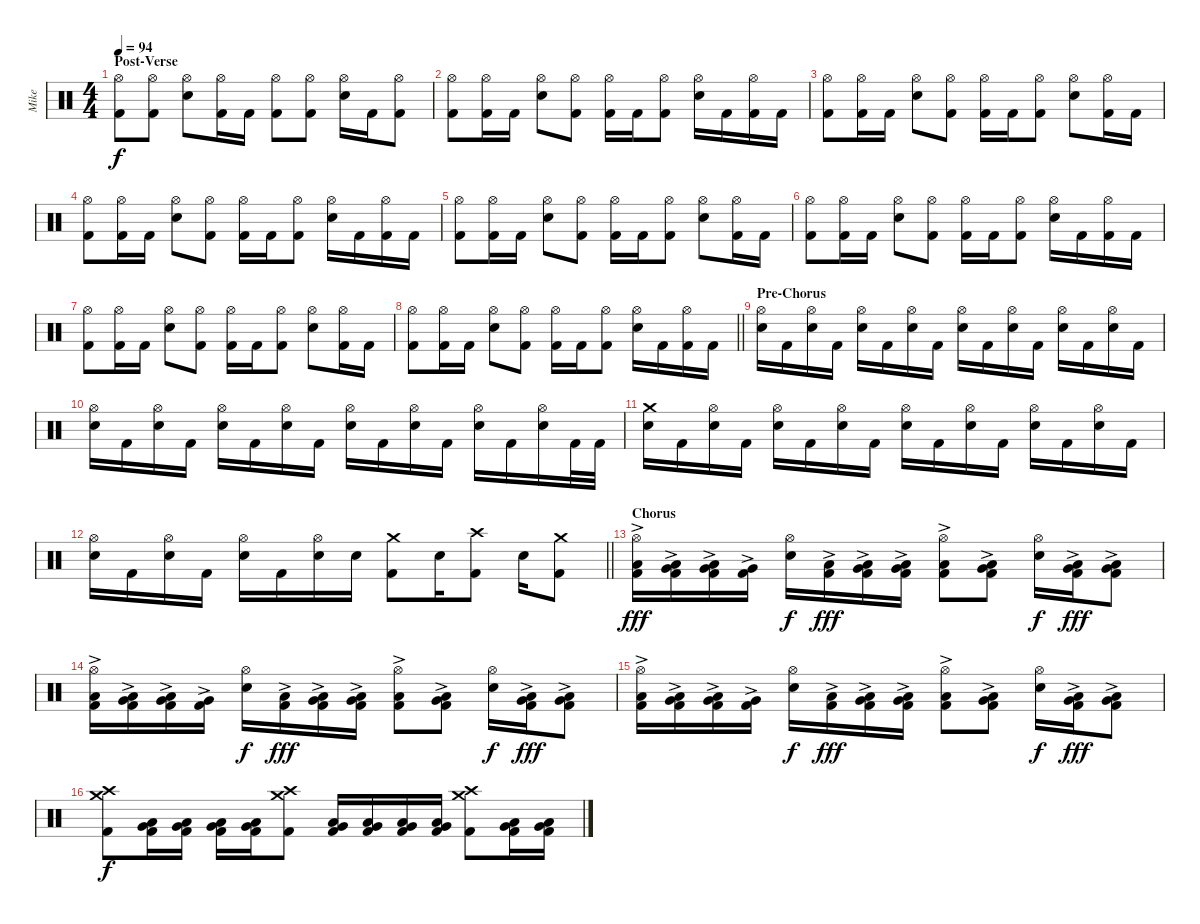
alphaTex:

\track ("Mike" "Mike") {instrument percussion}
\staff {score}
\articulation defaults
\ts (4 4)
\section ("" "Post-Verse")
\tempo 94
\clef neutral
\ks c
("Hi-Hat (open)" "Kick (hit) 2").8{dy f} ("Hi-Hat (open)" "Kick (hit) 2").8 ("Hi-Hat (open)" "Snare (hit) 2").8 ("Hi-Hat (open)" "Kick (hit) 2").16 "Kick (hit) 2".16 ("Hi-Hat (open)" "Kick (hit) 2").8 ("Hi-Hat (open)" "Kick (hit) 2").8 ("Hi-Hat (open)" "Snare (hit) 2").16 "Kick (hit) 2".16 ("Hi-Hat (open)" "Kick (hit) 2").8 |
("Hi-Hat (open)" "Kick (hit) 2").8 ("Hi-Hat (open)" "Kick (hit) 2").16 "Kick (hit) 2".16 ("Hi-Hat (open)" "Snare (hit) 2").8 ("Hi-Hat (open)" "Kick (hit) 2").8 ("Hi-Hat (open)" "Kick (hit) 2").16 "Kick (hit) 2".16 ("Hi-Hat (open)" "Kick (hit) 2").8 ("Hi-Hat (open)" "Snare (hit) 2").16 "Kick (hit) 2".16 ("Hi-Hat (open)" "Kick (hit) 2").16 "Kick (hit) 2".16 |
("Hi-Hat (open)" "Kick (hit) 2").8 ("Hi-Hat (open)" "Kick (hit) 2").16 "Kick (hit) 2".16 ("Hi-Hat (open)" "Snare (hit) 2").8 ("Hi-Hat (open)" "Kick (hit) 2").8 ("Hi-Hat (open)" "Kick (hit) 2").16 "Kick (hit) 2".16 ("Hi-Hat (open)" "Kick (hit) 2").8 ("Hi-Hat (open)" "Snare (hit) 2").8 ("Hi-Hat (open)" "Kick (hit) 2").16 "Kick (hit) 2".16 |
("Hi-Hat (open)" "Kick (hit) 2").8 ("Hi-Hat (open)" "Kick (hit) 2").16 "Kick (hit) 2".16 ("Hi-Hat (open)" "Snare (hit) 2").8 ("Hi-Hat (open)" "Kick (hit) 2").8 ("Hi-Hat (open)" "Kick (hit) 2").16 "Kick (hit) 2".16 ("Hi-Hat (open)" "Kick (hit) 2").8 ("Hi-Hat (open)" "Snare (hit) 2").16 "Kick (hit) 2".16 ("Hi-Hat (open)" "Kick (hit) 2").16 "Kick (hit) 2".16 |
("Hi-Hat (open)" "Kick (hit) 2").8 ("Hi-Hat (open)" "Kick (hit) 2").16 "Kick (hit) 2".16 ("Hi-Hat (open)" "Snare (hit) 2").8 ("Hi-Hat (open)" "Kick (hit) 2").8 ("Hi-Hat (open)" "Kick (hit) 2").16 "Kick (hit) 2".16 ("Hi-Hat (open)" "Kick (hit) 2").8 ("Hi-Hat (open)" "Snare (hit) 2").8 ("Hi-Hat (open)" "Kick (hit) 2").16 "Kick (hit) 2".16 |
("Hi-Hat (open)" "Kick (hit) 2").8 ("Hi-Hat (open)" "Kick (hit) 2").16 "Kick (hit) 2".16 ("Hi-Hat (open)" "Snare (hit) 2").8 ("Hi-Hat (open)" "Kick (hit) 2").8 ("Hi-Hat (open)" "Kick (hit) 2").16 "Kick (hit) 2".16 ("Hi-Hat (open)" "Kick (hit) 2").8 ("Hi-Hat (open)" "Snare (hit) 2").16 "Kick (hit) 2".16 ("Hi-Hat (open)" "Kick (hit) 2").16 "Kick (hit) 2".16 |
("Hi-Hat (open)" "Kick (hit) 2").8 ("Hi-Hat (open)" "Kick (hit) 2").16 "Kick (hit) 2".16 ("Hi-Hat (open)" "Snare (hit) 2").8 ("Hi-Hat (open)" "Kick (hit) 2").8 ("Hi-Hat (open)" "Kick (hit) 2").16 "Kick (hit) 2".16 ("Hi-Hat (open)" "Kick (hit) 2").8 ("Hi-Hat (open)" "Snare (hit) 2").8 ("Hi-Hat (open)" "Kick (hit) 2").16 "Kick (hit) 2".16 |
\barLineRight lightlight
("Hi-Hat (open)" "Kick (hit) 2").8 ("Hi-Hat (open)" "Kick (hit) 2").16 "Kick (hit) 2".16 ("Hi-Hat (open)" "Snare (hit) 2").8 ("Hi-Hat (open)" "Kick (hit) 2").8 ("Hi-Hat (open)" "Kick (hit) 2").16 "Kick (hit) 2".16 ("Hi-Hat (open)" "Kick (hit) 2").8 ("Hi-Hat (open)" "Snare (hit) 2").16 "Kick (hit) 2".16 ("Hi-Hat (open)" "Kick (hit) 2").16 "Kick (hit) 2".16 |
\section ("" "Pre-Chorus")
("Hi-Hat (open)" "Snare (hit) 2").16 "Kick (hit) 2".16 ("Hi-Hat (open)" "Snare (hit) 2").16 "Kick (hit) 2".16 ("Hi-Hat (open)" "Snare (hit) 2").16 "Kick (hit) 2".16 ("Hi-Hat (open)" "Snare (hit) 2").16 "Kick (hit) 2".16 ("Hi-Hat (open)" "Snare (hit) 2").16 "Kick (hit) 2".16 ("Hi-Hat (open)" "Snare (hit) 2").16 "Kick (hit) 2".16 ("Hi-Hat (open)" "Snare (hit) 2").16 "Kick (hit) 2".16 ("Hi-Hat (open)" "Snare (hit) 2").16 "Kick (hit) 2".16 |
("Hi-Hat (open)" "Snare (hit) 2").16 "Kick (hit) 2".16 ("Hi-Hat (open)" "Snare (hit) 2").16 "Kick (hit) 2".16 ("Hi-Hat (open)" "Snare (hit) 2").16 "Kick (hit) 2".16 ("Hi-Hat (open)" "Snare (hit) 2").16 "Kick (hit) 2".16 ("Hi-Hat (open)" "Snare (hit) 2").16 "Kick (hit) 2".16 ("Hi-Hat (open)" "Snare (hit) 2").16 "Kick (hit) 2".16 ("Hi-Hat (open)" "Snare (hit) 2").16 "Kick (hit) 2".16 ("Hi-Hat (open)" "Snare (hit) 2").16 "Kick (hit) 2".32 "Kick (hit) 2".32 |
("Crash medium (hit)" "Snare (hit) 2").16 "Kick (hit) 2".16 ("Hi-Hat (open)" "Snare (hit) 2").16 "Kick (hit) 2".16 ("Hi-Hat (open)" "Snare (hit) 2").16 "Kick (hit) 2".16 ("Hi-Hat (open)" "Snare (hit) 2").16 "Kick (hit) 2".16 ("Hi-Hat (open)" "Snare (hit) 2").16 "Kick (hit) 2".16 ("Hi-Hat (open)" "Snare (hit) 2").16 "Kick (hit) 2".16 ("Hi-Hat (open)" "Snare (hit) 2").16 "Kick (hit) 2".16 ("Hi-Hat (open)" "Snare (hit) 2").16 "Kick (hit) 2".16 |
\barLineRight lightlight
("Hi-Hat (open)" "Snare (hit) 2").16 "Kick (hit) 2".16 ("Hi-Hat (open)" "Snare (hit) 2").16 "Kick (hit) 2".16 ("Hi-Hat (open)" "Snare (hit) 2").16 "Kick (hit) 2".16 ("Hi-Hat (open)" "Snare (hit) 2").16 "Snare (hit) 2".16 ("Crash medium (hit)" "Kick (hit) 2").8 "Snare (hit) 2".16 ("Crash high (hit)" "Kick (hit) 2").8 "Snare (hit) 2".16 ("Crash medium (hit)" "Kick (hit) 2").8 |
\section ("" "Chorus")
("Hi-Hat (open)" "Low Tom (hit)"{ac} "Kick (hit) 2").16{dy fff} ("Low Tom (hit)"{ac} "Very Low Tom (hit)"{ac} "Kick (hit) 2").16 ("Very Low Tom (hit)"{ac} "Low Floor Tom (hit)"{ac} "Kick (hit) 2").16 ("Very Low Tom (hit)"{ac} "Kick (hit) 2").16 ("Hi-Hat (open)" "Snare (hit) 2").16{dy f} ("Low Tom (hit)"{ac} "Kick (hit) 2").16{dy fff} ("Low Tom (hit)"{ac} "Very Low Tom (hit)"{ac} "Kick (hit) 2").16 ("Very Low Tom (hit)"{ac} "Low Floor Tom (hit)"{ac} "Kick (hit) 2").16 ("Hi-Hat (open)" "Low Floor Tom (hit)"{ac} "Kick (hit) 2").8 ("Very Low Tom (hit)"{ac} "Low Floor Tom (hit)"{ac} "Kick (hit) 2").8 ("Hi-Hat (open)" "Snare (hit) 2").16{dy f} ("Very Low Tom (hit)"{ac} "Low Floor Tom (hit)"{ac} "Kick (hit) 2").16{dy fff} ("Very Low Tom (hit)"{ac} "Low Tom (hit)"{ac} "Kick (hit) 2").8 |
("Hi-Hat (open)" "Low Tom (hit)"{ac} "Kick (hit) 2").16 ("Low Tom (hit)"{ac} "Very Low Tom (hit)"{ac} "Kick (hit) 2").16 ("Very Low Tom (hit)"{ac} "Low Floor Tom (hit)"{ac} "Kick (hit) 2").16 ("Very Low Tom (hit)"{ac} "Kick (hit) 2").16 ("Hi-Hat (open)" "Snare (hit) 2").16{dy f} ("Low Tom (hit)"{ac} "Kick (hit) 2").16{dy fff} ("Low Tom (hit)"{ac} "Very Low Tom (hit)"{ac} "Kick (hit) 2").16 ("Very Low Tom (hit)"{ac} "Low Floor Tom (hit)"{ac} "Kick (hit) 2").16 ("Hi-Hat (open)" "Low Floor Tom (hit)"{ac} "Kick (hit) 2").8 ("Very Low Tom (hit)"{ac} "Low Floor Tom (hit)"{ac} "Kick (hit) 2").8 ("Hi-Hat (open)" "Snare (hit) 2").16{dy f} ("Very Low Tom (hit)"{ac} "Low Floor Tom (hit)"{ac} "Kick (hit) 2").16{dy fff} ("Very Low Tom (hit)"{ac} "Low Tom (hit)"{ac} "Kick (hit) 2").8 |
("Hi-Hat (open)" "Low Tom (hit)"{ac} "Kick (hit) 2").16 ("Low Tom (hit)"{ac} "Very Low Tom (hit)"{ac} "Kick (hit) 2").16 ("Very Low Tom (hit)"{ac} "Low Floor Tom (hit)"{ac} "Kick (hit) 2").16 ("Very Low Tom (hit)"{ac} "Kick (hit) 2").16 ("Hi-Hat (open)" "Snare (hit) 2").16{dy f} ("Low Tom (hit)"{ac} "Kick (hit) 2").16{dy fff} ("Low Tom (hit)"{ac} "Very Low Tom (hit)"{ac} "Kick (hit) 2").16 ("Very Low Tom (hit)"{ac} "Low Floor Tom (hit)"{ac} "Kick (hit) 2").16 ("Hi-Hat (open)" "Low Floor Tom (hit)"{ac} "Kick (hit) 2").8 ("Very Low Tom (hit)"{ac} "Low Floor Tom (hit)"{ac} "Kick (hit) 2").8 ("Hi-Hat (open)" "Snare (hit) 2").16{dy f} ("Very Low Tom (hit)"{ac} "Low Floor Tom (hit)"{ac} "Kick (hit) 2").16{dy fff} ("Very Low Tom (hit)"{ac} "Low Tom (hit)"{ac} "Kick (hit) 2").8 |
("Crash medium (hit)" "Crash high (hit)" "Kick (hit) 2").8{dy f} ("Low Tom (hit)" "Very Low Tom (hit)" "Kick (hit) 2").16 ("Low Tom (hit)" "Very Low Tom (hit)" "Kick (hit) 2").16 ("Low Tom (hit)" "Very Low Tom (hit)" "Kick (hit) 2").16 ("Low Tom (hit)" "Very Low Tom (hit)" "Kick (hit) 2").16 ("Crash medium (hit)" "Crash high (hit)" "Kick (hit) 2").8 ("Low Tom (hit)" "Very Low Tom (hit)" "Kick (hit) 2").16 ("Low Tom (hit)" "Very Low Tom (hit)" "Kick (hit) 2").16 ("Low Tom (hit)" "Very Low Tom (hit)" "Kick (hit) 2").16 ("Low Tom (hit)" "Very Low Tom (hit)" "Kick (hit) 2").16 ("Crash medium (hit)" "Crash high (hit)" "Kick (hit) 2").8 ("Low Tom (hit)" "Very Low Tom (hit)" "Kick (hit) 2").16 ("Low Tom (hit)" "Very Low Tom (hit)" "Kick (hit) 2").16
